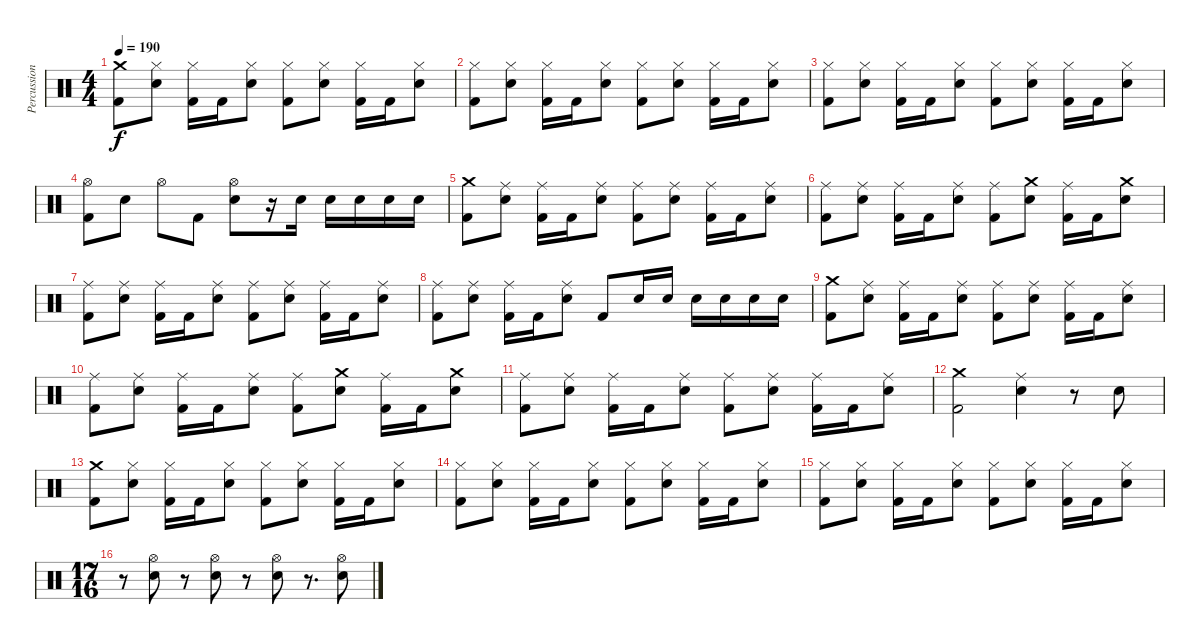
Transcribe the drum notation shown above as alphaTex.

\track ("Percussion" "Percussion") {instrument percussion}
\staff {score}
\articulation defaults
\ts (4 4)
\tempo 190
\clef neutral
\ks c
("Crash medium (hit)" "Kick (hit) 2").8{dy f} ("Hi-Hat (closed)" "Electric Snare (hit)").8 ("Hi-Hat (closed)" "Kick (hit) 2").16 "Kick (hit) 2".16 ("Hi-Hat (closed)" "Electric Snare (hit)").8 ("Hi-Hat (closed)" "Kick (hit) 2").8 ("Hi-Hat (closed)" "Electric Snare (hit)").8 ("Hi-Hat (closed)" "Kick (hit) 2").16 "Kick (hit) 2".16 ("Hi-Hat (closed)" "Electric Snare (hit)").8 |
("Hi-Hat (closed)" "Kick (hit) 2").8 ("Hi-Hat (closed)" "Electric Snare (hit)").8 ("Hi-Hat (closed)" "Kick (hit) 2").16 "Kick (hit) 2".16 ("Hi-Hat (closed)" "Electric Snare (hit)").8 ("Hi-Hat (closed)" "Kick (hit) 2").8 ("Hi-Hat (closed)" "Electric Snare (hit)").8 ("Hi-Hat (closed)" "Kick (hit) 2").16 "Kick (hit) 2".16 ("Hi-Hat (closed)" "Electric Snare (hit)").8 |
("Hi-Hat (closed)" "Kick (hit) 2").8 ("Hi-Hat (closed)" "Electric Snare (hit)").8 ("Hi-Hat (closed)" "Kick (hit) 2").16 "Kick (hit) 2".16 ("Hi-Hat (closed)" "Electric Snare (hit)").8 ("Hi-Hat (closed)" "Kick (hit) 2").8 ("Hi-Hat (closed)" "Electric Snare (hit)").8 ("Hi-Hat (closed)" "Kick (hit) 2").16 "Kick (hit) 2".16 ("Hi-Hat (closed)" "Electric Snare (hit)").8 |
("Hi-Hat (open)" "Kick (hit) 2").8 "Electric Snare (hit)".8 "Hi-Hat (open)".8 "Kick (hit) 2".8 ("Hi-Hat (open)" "Electric Snare (hit)").8 r.16 "Electric Snare (hit)".16 "Electric Snare (hit)".16 "Electric Snare (hit)".16 "Electric Snare (hit)".16 "Electric Snare (hit)".16 |
("Crash medium (hit)" "Kick (hit) 2").8 ("Ride (middle)" "Electric Snare (hit)").8 ("Ride (middle)" "Kick (hit) 2").16 "Kick (hit) 2".16 ("Ride (middle)" "Electric Snare (hit)").8 ("Ride (middle)" "Kick (hit) 2").8 ("Ride (middle)" "Electric Snare (hit)").8 ("Ride (middle)" "Kick (hit) 2").16 "Kick (hit) 2".16 ("Ride (middle)" "Electric Snare (hit)").8 |
("Ride (middle)" "Kick (hit) 2").8 ("Ride (middle)" "Electric Snare (hit)").8 ("Ride (middle)" "Kick (hit) 2").16 "Kick (hit) 2".16 ("Ride (middle)" "Electric Snare (hit)").8 ("Ride (middle)" "Kick (hit) 2").8 ("Crash medium (hit)" "Electric Snare (hit)").8 ("Ride (middle)" "Kick (hit) 2").16 "Kick (hit) 2".16 ("Crash medium (hit)" "Electric Snare (hit)").8 |
("Ride (middle)" "Kick (hit) 2").8 ("Ride (middle)" "Electric Snare (hit)").8 ("Ride (middle)" "Kick (hit) 2").16 "Kick (hit) 2".16 ("Ride (middle)" "Electric Snare (hit)").8 ("Ride (middle)" "Kick (hit) 2").8 ("Ride (middle)" "Electric Snare (hit)").8 ("Ride (middle)" "Kick (hit) 2").16 "Kick (hit) 2".16 ("Ride (middle)" "Electric Snare (hit)").8 |
("Ride (middle)" "Kick (hit) 2").8 ("Ride (middle)" "Electric Snare (hit)").8 ("Ride (middle)" "Kick (hit) 2").16 "Kick (hit) 2".16 ("Ride (middle)" "Electric Snare (hit)").8 "Kick (hit) 2".8 "Electric Snare (hit)".16 "Electric Snare (hit)".16 "Electric Snare (hit)".16 "Electric Snare (hit)".16 "Electric Snare (hit)".16 "Electric Snare (hit)".16 |
("Crash medium (hit)" "Kick (hit) 2").8 ("Ride (middle)" "Electric Snare (hit)").8 ("Ride (middle)" "Kick (hit) 2").16 "Kick (hit) 2".16 ("Ride (middle)" "Electric Snare (hit)").8 ("Ride (middle)" "Kick (hit) 2").8 ("Ride (middle)" "Electric Snare (hit)").8 ("Ride (middle)" "Kick (hit) 2").16 "Kick (hit) 2".16 ("Ride (middle)" "Electric Snare (hit)").8 |
("Ride (middle)" "Kick (hit) 2").8 ("Ride (middle)" "Electric Snare (hit)").8 ("Ride (middle)" "Kick (hit) 2").16 "Kick (hit) 2".16 ("Ride (middle)" "Electric Snare (hit)").8 ("Ride (middle)" "Kick (hit) 2").8 ("Crash medium (hit)" "Electric Snare (hit)").8 ("Ride (middle)" "Kick (hit) 2").16 "Kick (hit) 2".16 ("Crash medium (hit)" "Electric Snare (hit)").8 |
("Ride (middle)" "Kick (hit) 2").8 ("Ride (middle)" "Electric Snare (hit)").8 ("Ride (middle)" "Kick (hit) 2").16 "Kick (hit) 2".16 ("Ride (middle)" "Electric Snare (hit)").8 ("Ride (middle)" "Kick (hit) 2").8 ("Ride (middle)" "Electric Snare (hit)").8 ("Ride (middle)" "Kick (hit) 2").16 "Kick (hit) 2".16 ("Ride (middle)" "Electric Snare (hit)").8 |
("Crash medium (hit)" "Kick (hit) 2").2 ("Ride (middle)" "Electric Snare (hit)").4 r.8 "Electric Snare (hit)".8 |
("Crash medium (hit)" "Kick (hit) 2").8 ("Hi-Hat (closed)" "Electric Snare (hit)").8 ("Hi-Hat (closed)" "Kick (hit) 2").16 "Kick (hit) 2".16 ("Hi-Hat (closed)" "Electric Snare (hit)").8 ("Hi-Hat (closed)" "Kick (hit) 2").8 ("Hi-Hat (closed)" "Electric Snare (hit)").8 ("Hi-Hat (closed)" "Kick (hit) 2").16 "Kick (hit) 2".16 ("Hi-Hat (closed)" "Electric Snare (hit)").8 |
("Hi-Hat (closed)" "Kick (hit) 2").8 ("Hi-Hat (closed)" "Electric Snare (hit)").8 ("Hi-Hat (closed)" "Kick (hit) 2").16 "Kick (hit) 2".16 ("Hi-Hat (closed)" "Electric Snare (hit)").8 ("Hi-Hat (closed)" "Kick (hit) 2").8 ("Hi-Hat (closed)" "Electric Snare (hit)").8 ("Hi-Hat (closed)" "Kick (hit) 2").16 "Kick (hit) 2".16 ("Hi-Hat (closed)" "Electric Snare (hit)").8 |
("Hi-Hat (closed)" "Kick (hit) 2").8 ("Hi-Hat (closed)" "Electric Snare (hit)").8 ("Hi-Hat (closed)" "Kick (hit) 2").16 "Kick (hit) 2".16 ("Hi-Hat (closed)" "Electric Snare (hit)").8 ("Hi-Hat (closed)" "Kick (hit) 2").8 ("Hi-Hat (closed)" "Electric Snare (hit)").8 ("Hi-Hat (closed)" "Kick (hit) 2").16 "Kick (hit) 2".16 ("Hi-Hat (closed)" "Electric Snare (hit)").8 |
\ts (17 16)
r.8 ("Hi-Hat (open)" "Electric Snare (hit)").8 r.8 ("Hi-Hat (open)" "Electric Snare (hit)").8 r.8 ("Hi-Hat (open)" "Electric Snare (hit)").8 r.8{d} ("Hi-Hat (open)" "Electric Snare (hit)").8
